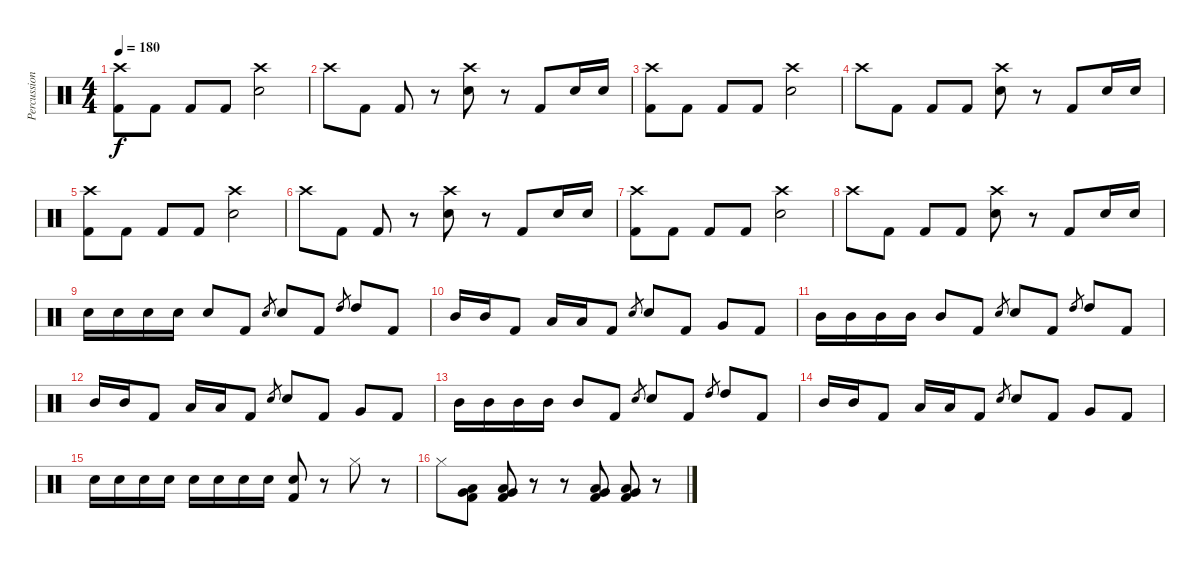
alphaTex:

\track ("Percussion" "Percussion") {instrument percussion}
\staff {score}
\articulation defaults
\ts (4 4)
\tempo 180
\clef neutral
\ks c
("Crash high (hit)" "Kick (hit) 2").8{dy f} "Kick (hit) 2".8 "Kick (hit) 2".8 "Kick (hit) 2".8 ("Crash high (hit)" "Electric Snare (hit)").2 |
"Crash high (hit)".8 "Kick (hit) 2".8 "Kick (hit) 2".8 r.8 ("Crash high (hit)" "Electric Snare (hit)").8 r.8 "Kick (hit) 2".8 "Electric Snare (hit)".16 "Electric Snare (hit)".16 |
("Crash high (hit)" "Kick (hit) 2").8 "Kick (hit) 2".8 "Kick (hit) 2".8 "Kick (hit) 2".8 ("Crash high (hit)" "Electric Snare (hit)").2 |
"Crash high (hit)".8 "Kick (hit) 2".8 "Kick (hit) 2".8 "Kick (hit) 2".8 ("Crash high (hit)" "Electric Snare (hit)").8 r.8 "Kick (hit) 2".8 "Electric Snare (hit)".16 "Electric Snare (hit)".16 |
("Crash high (hit)" "Kick (hit) 2").8 "Kick (hit) 2".8 "Kick (hit) 2".8 "Kick (hit) 2".8 ("Crash high (hit)" "Electric Snare (hit)").2 |
"Crash high (hit)".8 "Kick (hit) 2".8 "Kick (hit) 2".8 r.8 ("Crash high (hit)" "Electric Snare (hit)").8 r.8 "Kick (hit) 2".8 "Electric Snare (hit)".16 "Electric Snare (hit)".16 |
("Crash high (hit)" "Kick (hit) 2").8 "Kick (hit) 2".8 "Kick (hit) 2".8 "Kick (hit) 2".8 ("Crash high (hit)" "Electric Snare (hit)").2 |
"Crash high (hit)".8 "Kick (hit) 2".8 "Kick (hit) 2".8 "Kick (hit) 2".8 ("Crash high (hit)" "Electric Snare (hit)").8 r.8 "Kick (hit) 2".8 "Electric Snare (hit)".16 "Electric Snare (hit)".16 |
"Electric Snare (hit)".16 "Electric Snare (hit)".16 "Electric Snare (hit)".16 "Electric Snare (hit)".16 "Electric Snare (hit)".8 "Kick (hit) 2".8 "Electric Snare (hit)".8{gr} "Electric Snare (hit)".8 "Kick (hit) 2".8 "High Tom (hit)".8{gr} "High Tom (hit)".8 "Kick (hit) 2".8 |
"Mid Tom (hit)".16 "Mid Tom (hit)".16 "Kick (hit) 2".8 "Low Tom (hit)".16 "Low Tom (hit)".16 "Kick (hit) 2".8 "Electric Snare (hit)".8{gr} "Electric Snare (hit)".8 "Kick (hit) 2".8 "Very Low Tom (hit)".8 "Kick (hit) 2".8 |
"Mid Tom (hit)".16 "Mid Tom (hit)".16 "Mid Tom (hit)".16 "Mid Tom (hit)".16 "Mid Tom (hit)".8 "Kick (hit) 2".8 "Electric Snare (hit)".8{gr} "Electric Snare (hit)".8 "Kick (hit) 2".8 "High Tom (hit)".8{gr} "High Tom (hit)".8 "Kick (hit) 2".8 |
"Mid Tom (hit)".16 "Mid Tom (hit)".16 "Kick (hit) 2".8 "Low Tom (hit)".16 "Low Tom (hit)".16 "Kick (hit) 2".8 "Electric Snare (hit)".8{gr} "Electric Snare (hit)".8 "Kick (hit) 2".8 "Very Low Tom (hit)".8 "Kick (hit) 2".8 |
"Mid Tom (hit)".16 "Mid Tom (hit)".16 "Mid Tom (hit)".16 "Mid Tom (hit)".16 "Mid Tom (hit)".8 "Kick (hit) 2".8 "Electric Snare (hit)".8{gr} "Electric Snare (hit)".8 "Kick (hit) 2".8 "High Tom (hit)".8{gr} "High Tom (hit)".8 "Kick (hit) 2".8 |
"Mid Tom (hit)".16 "Mid Tom (hit)".16 "Kick (hit) 2".8 "Low Tom (hit)".16 "Low Tom (hit)".16 "Kick (hit) 2".8 "Electric Snare (hit)".8{gr} "Electric Snare (hit)".8 "Kick (hit) 2".8 "Very Low Tom (hit)".8 "Kick (hit) 2".8 |
"Electric Snare (hit)".16 "Electric Snare (hit)".16 "Electric Snare (hit)".16 "Electric Snare (hit)".16 "Electric Snare (hit)".16 "Electric Snare (hit)".16 "Electric Snare (hit)".16 "Electric Snare (hit)".16 ("Electric Snare (hit)" "Kick (hit) 2").8 r.8 "Hi-Hat (closed)".8 r.8 |
"Hi-Hat (closed)".8 ("Low Tom (hit)" "Very Low Tom (hit)" "Kick (hit) 2").8 ("Low Tom (hit)" "Very Low Tom (hit)" "Kick (hit) 2").8 r.8 r.8 ("Low Tom (hit)" "Very Low Tom (hit)" "Kick (hit) 2").8 ("Low Tom (hit)" "Very Low Tom (hit)" "Kick (hit) 2").8 r.8
